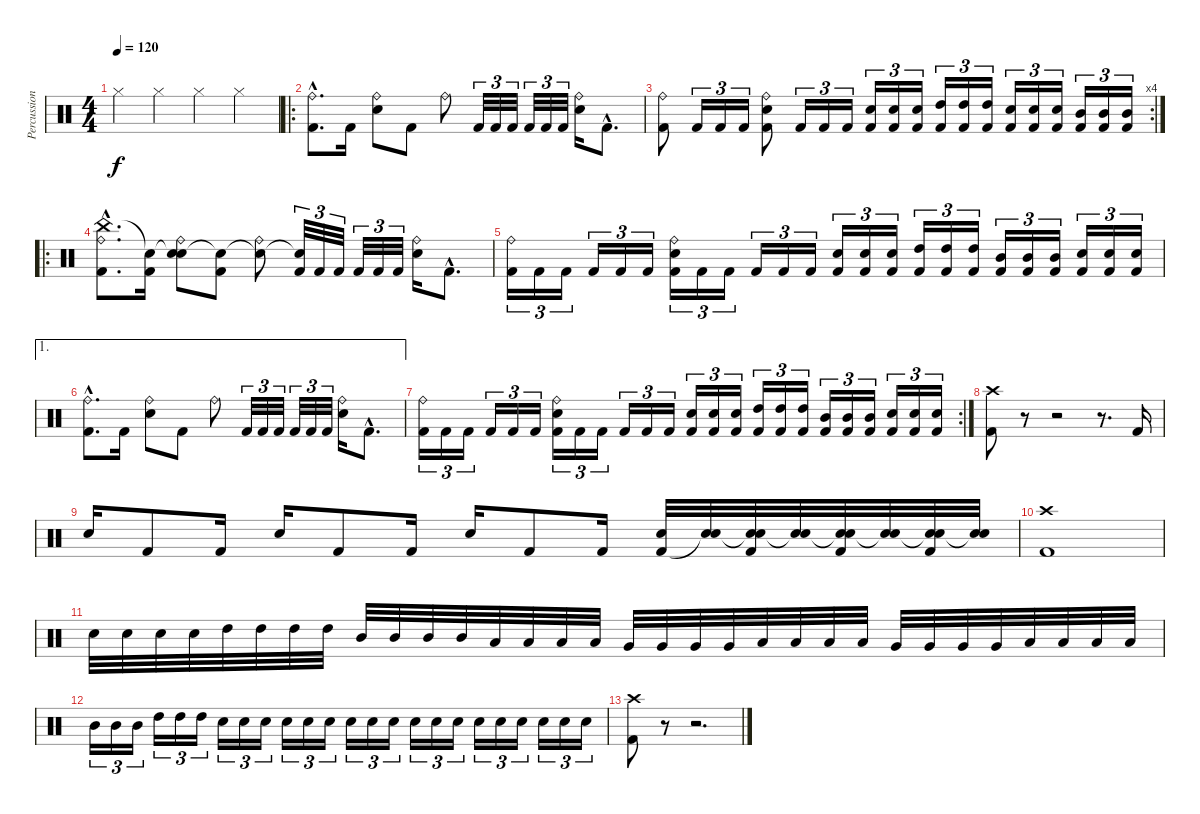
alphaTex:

\track ("Percussion" "Percussion") {instrument percussion}
\staff {score}
\articulation defaults
\ts (4 4)
\tempo 120
\clef neutral
\ks c "Hi-Hat (closed)".4{dy f} "Hi-Hat (closed)".4 "Hi-Hat (closed)".4 "Hi-Hat (closed)".4
|
\ro
("Ride (bell)"{hac} "Kick (hit) 2"{hac}).8{d} "Kick (hit) 2".16 ("Ride (bell)" "Snare (hit) 2").8 "Kick (hit) 2".8 "Ride (bell)".8 "Kick (hit) 2".32{tu (3 2)} "Kick (hit) 2".32{tu (3 2)} "Kick (hit) 2".32{tu (3 2)} "Kick (hit) 2".32{tu (3 2)} "Kick (hit) 2".32{tu (3 2)} "Kick (hit) 2".32{tu (3 2)} ("Ride (bell)" "Snare (hit) 2").16 "Kick (hit) 2"{hac}.8{d} |
\rc 4
("Ride (bell)" "Kick (hit) 2").8 "Kick (hit) 2".16{tu (3 2)} "Kick (hit) 2".16{tu (3 2)} "Kick (hit) 2".16{tu (3 2)} ("Ride (bell)" "Snare (hit) 2" "Kick (hit) 2").8 "Kick (hit) 2".16{tu (3 2)} "Kick (hit) 2".16{tu (3 2)} "Kick (hit) 2".16{tu (3 2)} ("Snare (hit) 2" "Kick (hit) 2").16{tu (3 2)} ("Snare (hit) 2" "Kick (hit) 2").16{tu (3 2)} ("Snare (hit) 2" "Kick (hit) 2").16{tu (3 2)} ("High Tom (hit)" "Kick (hit) 2").16{tu (3 2)} ("High Tom (hit)" "Kick (hit) 2").16{tu (3 2)} ("High Tom (hit)" "Kick (hit) 2").16{tu (3 2)} ("Snare (hit) 2" "Kick (hit) 2").16{tu (3 2)} ("Snare (hit) 2" "Kick (hit) 2").16{tu (3 2)} ("Snare (hit) 2" "Kick (hit) 2").16{tu (3 2)} ("Mid Tom (hit)" "Kick (hit) 2").16{tu (3 2)} ("Mid Tom (hit)" "Kick (hit) 2").16{tu (3 2)} ("Mid Tom (hit)" "Kick (hit) 2").16{tu (3 2)} |
\ro
("China (hit)"{hac} "Ride (bell)"{hac} "Kick (hit) 2"{hac}).8{d} ("Snare (hit)"{t} "Kick (hit) 2").16 ("Snare (hit)"{t} "Ride (bell)" "Snare (hit) 2").8 ("Snare (hit)"{t} "Kick (hit) 2").8 ("Snare (hit)"{t} "Ride (bell)").8 ("Snare (hit)"{t} "Kick (hit) 2").32{tu (3 2)} "Kick (hit) 2".32{tu (3 2)} "Kick (hit) 2".32{tu (3 2)} "Kick (hit) 2".32{tu (3 2)} "Kick (hit) 2".32{tu (3 2)} "Kick (hit) 2".32{tu (3 2)} ("Ride (bell)" "Snare (hit) 2").16 "Kick (hit) 2"{hac}.8{d} |
("Ride (bell)" "Kick (hit) 2").16{tu (3 2)} "Kick (hit) 2".16{tu (3 2)} "Kick (hit) 2".16{tu (3 2)} "Kick (hit) 2".16{tu (3 2)} "Kick (hit) 2".16{tu (3 2)} "Kick (hit) 2".16{tu (3 2)} ("Ride (bell)" "Snare (hit) 2" "Kick (hit) 2").16{tu (3 2)} "Kick (hit) 2".16{tu (3 2)} "Kick (hit) 2".16{tu (3 2)} "Kick (hit) 2".16{tu (3 2)} "Kick (hit) 2".16{tu (3 2)} "Kick (hit) 2".16{tu (3 2)} ("Snare (hit) 2" "Kick (hit) 2").16{tu (3 2)} ("Snare (hit) 2" "Kick (hit) 2").16{tu (3 2)} ("Snare (hit) 2" "Kick (hit) 2").16{tu (3 2)} ("High Tom (hit)" "Kick (hit) 2").16{tu (3 2)} ("High Tom (hit)" "Kick (hit) 2").16{tu (3 2)} ("High Tom (hit)" "Kick (hit) 2").16{tu (3 2)} ("Mid Tom (hit)" "Kick (hit) 2").16{tu (3 2)} ("Mid Tom (hit)" "Kick (hit) 2").16{tu (3 2)} ("Mid Tom (hit)" "Kick (hit) 2").16{tu (3 2)} ("Snare (hit) 2" "Kick (hit) 2").16{tu (3 2)} ("Snare (hit) 2" "Kick (hit) 2").16{tu (3 2)} ("Snare (hit) 2" "Kick (hit) 2").16{tu (3 2)} |
\ae 1
("Ride (bell)"{hac} "Kick (hit) 2"{hac}).8{d} "Kick (hit) 2".16 ("Ride (bell)" "Snare (hit) 2").8 "Kick (hit) 2".8 "Ride (bell)".8 "Kick (hit) 2".32{tu (3 2)} "Kick (hit) 2".32{tu (3 2)} "Kick (hit) 2".32{tu (3 2)} "Kick (hit) 2".32{tu (3 2)} "Kick (hit) 2".32{tu (3 2)} "Kick (hit) 2".32{tu (3 2)} ("Ride (bell)" "Snare (hit) 2").16 "Kick (hit) 2"{hac}.8{d} |
\rc 2
("Ride (bell)" "Kick (hit) 2").16{tu (3 2)} "Kick (hit) 2".16{tu (3 2)} "Kick (hit) 2".16{tu (3 2)} "Kick (hit) 2".16{tu (3 2)} "Kick (hit) 2".16{tu (3 2)} "Kick (hit) 2".16{tu (3 2)} ("Ride (bell)" "Snare (hit) 2" "Kick (hit) 2").16{tu (3 2)} "Kick (hit) 2".16{tu (3 2)} "Kick (hit) 2".16{tu (3 2)} "Kick (hit) 2".16{tu (3 2)} "Kick (hit) 2".16{tu (3 2)} "Kick (hit) 2".16{tu (3 2)} ("Snare (hit) 2" "Kick (hit) 2").16{tu (3 2)} ("Snare (hit) 2" "Kick (hit) 2").16{tu (3 2)} ("Snare (hit) 2" "Kick (hit) 2").16{tu (3 2)} ("High Tom (hit)" "Kick (hit) 2").16{tu (3 2)} ("High Tom (hit)" "Kick (hit) 2").16{tu (3 2)} ("High Tom (hit)" "Kick (hit) 2").16{tu (3 2)} ("Mid Tom (hit)" "Kick (hit) 2").16{tu (3 2)} ("Mid Tom (hit)" "Kick (hit) 2").16{tu (3 2)} ("Mid Tom (hit)" "Kick (hit) 2").16{tu (3 2)} ("Snare (hit) 2" "Kick (hit) 2").16{tu (3 2)} ("Snare (hit) 2" "Kick (hit) 2").16{tu (3 2)} ("Snare (hit) 2" "Kick (hit) 2").16{tu (3 2)} |
("Crash high (hit)" "Kick (hit) 2").8 r.8 r.2 r.8{d} "Kick (hit) 2".16 |
"Snare (hit) 2".16 "Kick (hit) 2".8 "Kick (hit) 2".16 "Snare (hit) 2".16 "Kick (hit) 2".8 "Kick (hit) 2".16 "Snare (hit) 2".16 "Kick (hit) 2".8 "Kick (hit) 2".16 ("Snare (hit) 2" "Kick (hit) 2").32 ("Snare (hit) 2" "Snare (hit) 2"{t}).32 ("Snare (hit)"{t} "Snare (hit) 2" "Kick (hit) 2").32 ("Snare (hit) 2" "Snare (hit) 2"{t}).32 ("Snare (hit)"{t} "Snare (hit) 2" "Kick (hit) 2").32 ("Snare (hit) 2" "Snare (hit) 2"{t}).32 ("Snare (hit)"{t} "Snare (hit) 2" "Kick (hit) 2").32 ("Snare (hit) 2" "Snare (hit) 2"{t}).32 |
("Kick (hit) 2" "Crash high (hit)").1 |
"Snare (hit) 2".32 "Snare (hit) 2".32 "Snare (hit) 2".32 "Snare (hit) 2".32 "High Tom (hit)".32 "High Tom (hit)".32 "High Tom (hit)".32 "High Tom (hit)".32 "Mid Tom (hit)".32 "Mid Tom (hit)".32 "Mid Tom (hit)".32 "Mid Tom (hit)".32 "Low Tom (hit)".32 "Low Tom (hit)".32 "Low Tom (hit)".32 "Low Tom (hit)".32 "Very Low Tom (hit)".32 "Very Low Tom (hit)".32 "Very Low Tom (hit)".32 "Very Low Tom (hit)".32 "Low Tom (hit)".32 "Low Tom (hit)".32 "Low Tom (hit)".32 "Low Tom (hit)".32 "Very Low Tom (hit)".32 "Very Low Tom (hit)".32 "Very Low Tom (hit)".32 "Very Low Tom (hit)".32 "Low Tom (hit)".32 "Low Tom (hit)".32 "Low Tom (hit)".32 "Low Tom (hit)".32 |
"Mid Tom (hit)".16{tu (3 2)} "Mid Tom (hit)".16{tu (3 2)} "Mid Tom (hit)".16{tu (3 2)} "High Tom (hit)".16{tu (3 2)} "High Tom (hit)".16{tu (3 2)} "High Tom (hit)".16{tu (3 2)} "Snare (hit) 2".16{tu (3 2)} "Snare (hit) 2".16{tu (3 2)} "Snare (hit) 2".16{tu (3 2)} "Snare (hit) 2".16{tu (3 2)} "Snare (hit) 2".16{tu (3 2)} "Snare (hit) 2".16{tu (3 2)} "Snare (hit) 2".16{tu (3 2)} "Snare (hit) 2".16{tu (3 2)} "Snare (hit) 2".16{tu (3 2)} "Snare (hit) 2".16{tu (3 2)} "Snare (hit) 2".16{tu (3 2)} "Snare (hit) 2".16{tu (3 2)} "Snare (hit) 2".16{tu (3 2)} "Snare (hit) 2".16{tu (3 2)} "Snare (hit) 2".16{tu (3 2)} "Snare (hit) 2".16{tu (3 2)} "Snare (hit) 2".16{tu (3 2)} "Snare (hit) 2".16{tu (3 2)} |
("Kick (hit) 2" "Crash high (hit)").8 r.8 r.2{d}
